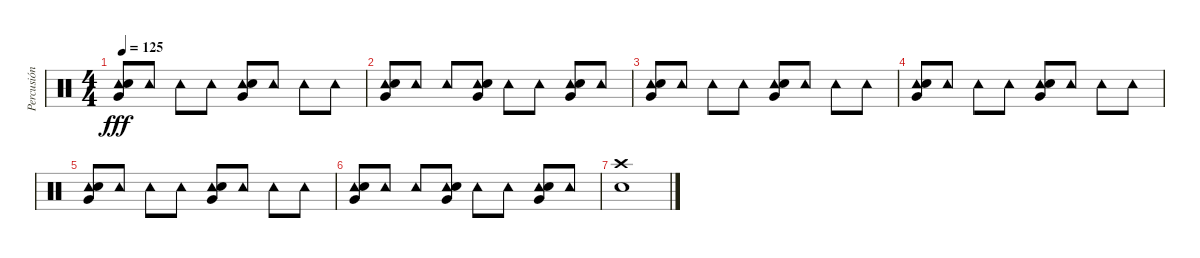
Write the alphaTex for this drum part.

\track ("Percusión" "Percusión") {instrument percussion}
\staff {score}
\articulation defaults
\ts (4 4)
\tempo 125
\clef neutral
\ks c
("Tambourine (hit)" "Snare (hit) 2" "Very Low Tom (hit)").8{dy fff} "Tambourine (hit)".8 "Tambourine (hit)".8 "Tambourine (hit)".8 ("Tambourine (hit)" "Snare (hit) 2" "Very Low Tom (hit)").8 "Tambourine (hit)".8 "Tambourine (hit)".8 "Tambourine (hit)".8 |
("Tambourine (hit)" "Snare (hit) 2" "Very Low Tom (hit)").8 "Tambourine (hit)".8 "Tambourine (hit)".8 ("Tambourine (hit)" "Snare (hit) 2" "Very Low Tom (hit)").8 "Tambourine (hit)".8 "Tambourine (hit)".8 ("Tambourine (hit)" "Snare (hit) 2" "Very Low Tom (hit)").8 "Tambourine (hit)".8 |
("Tambourine (hit)" "Snare (hit) 2" "Very Low Tom (hit)").8 "Tambourine (hit)".8 "Tambourine (hit)".8 "Tambourine (hit)".8 ("Tambourine (hit)" "Snare (hit) 2" "Very Low Tom (hit)").8 "Tambourine (hit)".8 "Tambourine (hit)".8 "Tambourine (hit)".8 |
("Tambourine (hit)" "Snare (hit) 2" "Very Low Tom (hit)").8 "Tambourine (hit)".8 "Tambourine (hit)".8 "Tambourine (hit)".8 ("Tambourine (hit)" "Snare (hit) 2" "Very Low Tom (hit)").8 "Tambourine (hit)".8 "Tambourine (hit)".8 "Tambourine (hit)".8 |
("Tambourine (hit)" "Snare (hit) 2" "Very Low Tom (hit)").8 "Tambourine (hit)".8 "Tambourine (hit)".8 "Tambourine (hit)".8 ("Tambourine (hit)" "Snare (hit) 2" "Very Low Tom (hit)").8 "Tambourine (hit)".8 "Tambourine (hit)".8 "Tambourine (hit)".8 |
("Tambourine (hit)" "Snare (hit) 2" "Very Low Tom (hit)").8 "Tambourine (hit)".8 "Tambourine (hit)".8 ("Tambourine (hit)" "Snare (hit) 2" "Very Low Tom (hit)").8 "Tambourine (hit)".8 "Tambourine (hit)".8 ("Tambourine (hit)" "Snare (hit) 2" "Very Low Tom (hit)").8 "Tambourine (hit)".8 |
("Crash high (hit)" "Snare (hit) 2").1
